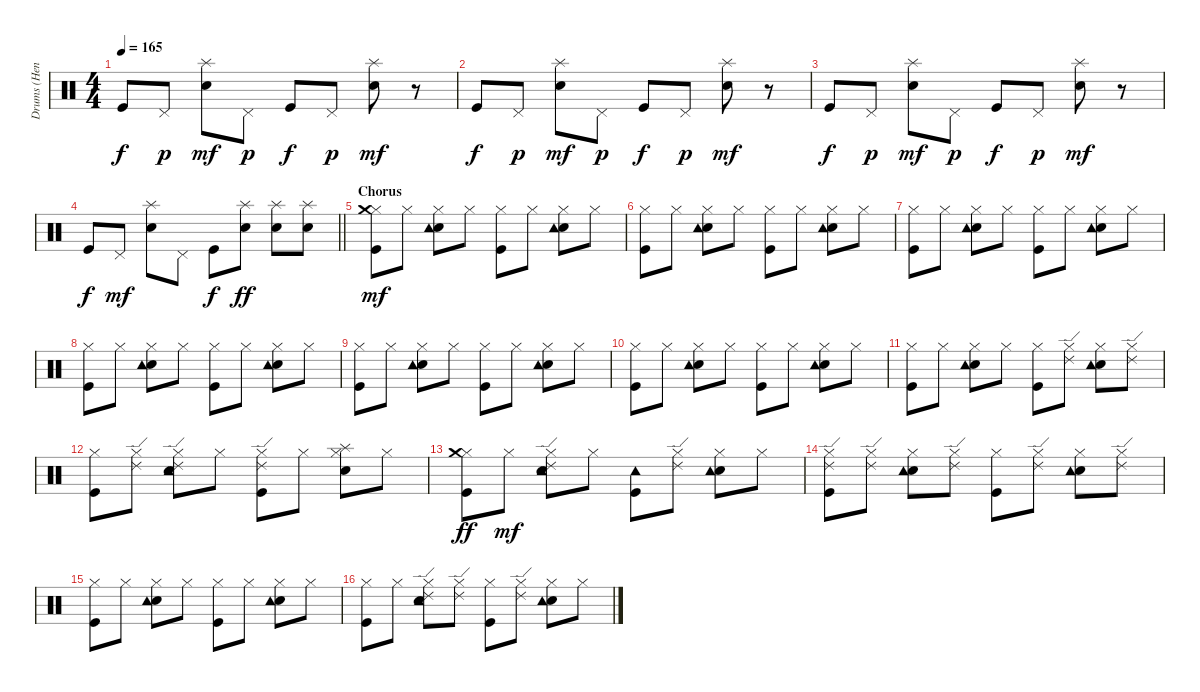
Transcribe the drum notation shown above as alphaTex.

\track ("Drums (Henry)" "Drums (Hen") {instrument percussion}
\staff {score}
\articulation defaults
\ts (4 4)
\tempo 165
\clef neutral
\ks c "Kick (hit)".8{dy f} "Pedal Hi-Hat (hit)".8{dy p}
("Snare (hit) 2" "Splash (hit)").8{dy mf} "Pedal Hi-Hat (hit)".8{dy p} "Kick (hit)".8{dy f} "Pedal Hi-Hat (hit)".8{dy p} ("Snare (hit) 2" "Splash (hit)").8{dy mf} r.8 |
"Kick (hit)".8{dy f} "Pedal Hi-Hat (hit)".8{dy p} ("Snare (hit) 2" "Splash (hit)").8{dy mf} "Pedal Hi-Hat (hit)".8{dy p} "Kick (hit)".8{dy f} "Pedal Hi-Hat (hit)".8{dy p} ("Snare (hit) 2" "Splash (hit)").8{dy mf} r.8 |
"Kick (hit)".8{dy f} "Pedal Hi-Hat (hit)".8{dy p} ("Snare (hit) 2" "Splash (hit)").8{dy mf} "Pedal Hi-Hat (hit)".8{dy p} "Kick (hit)".8{dy f} "Pedal Hi-Hat (hit)".8{dy p} ("Snare (hit) 2" "Splash (hit)").8{dy mf} r.8 |
\barLineRight lightlight "Kick (hit)".8{dy f} "Pedal Hi-Hat (hit)".8{dy mf}
("Snare (hit) 2" "Splash (hit)").8 "Pedal Hi-Hat (hit)".8 "Kick (hit)".8{dy f} ("Snare (hit) 2" "Splash (hit)").8{dy ff} ("Snare (hit) 2" "Splash (hit)").8 ("Snare (hit) 2" "Splash (hit)").8 |
\section ("" "Chorus")
("Kick (hit)" "Hi-Hat (closed)" "Crash medium (hit)").8{dy mf} "Hi-Hat (closed)".8 ("Snare (hit) 2" "Tambourine (hit)" "Hi-Hat (closed)").8 "Hi-Hat (closed)".8 ("Kick (hit)" "Hi-Hat (closed)").8 "Hi-Hat (closed)".8 ("Snare (hit) 2" "Tambourine (hit)" "Hi-Hat (closed)").8 "Hi-Hat (closed)".8 |
("Kick (hit)" "Hi-Hat (closed)").8 "Hi-Hat (closed)".8 ("Snare (hit) 2" "Tambourine (hit)" "Hi-Hat (closed)").8 "Hi-Hat (closed)".8 ("Kick (hit)" "Hi-Hat (closed)").8 "Hi-Hat (closed)".8 ("Snare (hit) 2" "Tambourine (hit)" "Hi-Hat (closed)").8 "Hi-Hat (closed)".8 |
("Kick (hit)" "Hi-Hat (closed)").8 "Hi-Hat (closed)".8 ("Snare (hit) 2" "Tambourine (hit)" "Hi-Hat (closed)").8 "Hi-Hat (closed)".8 ("Kick (hit)" "Hi-Hat (closed)").8 "Hi-Hat (closed)".8 ("Snare (hit) 2" "Tambourine (hit)" "Hi-Hat (closed)").8 "Hi-Hat (closed)".8 |
("Kick (hit)" "Hi-Hat (closed)").8 "Hi-Hat (closed)".8 ("Snare (hit) 2" "Tambourine (hit)" "Hi-Hat (closed)").8 "Hi-Hat (closed)".8 ("Kick (hit)" "Hi-Hat (closed)").8 "Hi-Hat (closed)".8 ("Snare (hit) 2" "Tambourine (hit)" "Hi-Hat (closed)").8 "Hi-Hat (closed)".8 |
("Kick (hit)" "Hi-Hat (closed)").8 "Hi-Hat (closed)".8 ("Snare (hit) 2" "Tambourine (hit)" "Hi-Hat (closed)").8 "Hi-Hat (closed)".8 ("Kick (hit)" "Hi-Hat (closed)").8 "Hi-Hat (closed)".8 ("Snare (hit) 2" "Tambourine (hit)" "Hi-Hat (closed)").8 "Hi-Hat (closed)".8 |
("Kick (hit)" "Hi-Hat (closed)").8 "Hi-Hat (closed)".8 ("Snare (hit) 2" "Tambourine (hit)" "Hi-Hat (closed)").8 "Hi-Hat (closed)".8 ("Kick (hit)" "Hi-Hat (closed)").8 "Hi-Hat (closed)".8 ("Snare (hit) 2" "Tambourine (hit)" "Hi-Hat (closed)").8 "Hi-Hat (closed)".8 |
("Kick (hit)" "Hi-Hat (closed)").8 "Hi-Hat (closed)".8 ("Snare (hit) 2" "Tambourine (hit)" "Hi-Hat (closed)").8 "Hi-Hat (closed)".8 ("Kick (hit)" "Hi-Hat (closed)").8 ("Hi-Hat (closed)" "Ride (edge) 2").8 ("Snare (hit) 2" "Tambourine (hit)" "Hi-Hat (closed)").8 ("Hi-Hat (closed)" "Ride (edge) 2").8 |
("Kick (hit)" "Hi-Hat (closed)").8 ("Hi-Hat (closed)" "Ride (edge) 2").8 ("Snare (hit) 2" "Tambourine (hit)" "Hi-Hat (closed)" "Ride (edge) 2").8 "Hi-Hat (closed)".8 ("Kick (hit)" "Hi-Hat (closed)" "Ride (edge) 2").8 "Hi-Hat (closed)".8 ("Snare (hit) 2" "Splash (hit)" "Hi-Hat (closed)").8 "Hi-Hat (closed)".8 |
("Kick (hit)" "Hi-Hat (closed)" "Crash medium (hit)").8{dy ff} "Hi-Hat (closed)".8{dy mf} ("Snare (hit) 2" "Tambourine (hit)" "Hi-Hat (closed)" "Ride (edge) 2").8 "Hi-Hat (closed)".8 ("Kick (hit)" "Tambourine (hit)").8 ("Hi-Hat (closed)" "Ride (edge) 2").8 ("Snare (hit) 2" "Tambourine (hit)" "Hi-Hat (closed)").8 "Hi-Hat (closed)".8 |
("Kick (hit)" "Hi-Hat (closed)" "Ride (edge) 2").8 ("Hi-Hat (closed)" "Ride (edge) 2").8 ("Snare (hit) 2" "Tambourine (hit)" "Hi-Hat (closed)").8 ("Hi-Hat (closed)" "Ride (edge) 2").8 ("Kick (hit)" "Hi-Hat (closed)").8 ("Hi-Hat (closed)" "Ride (edge) 2").8 ("Snare (hit) 2" "Tambourine (hit)" "Hi-Hat (closed)").8 ("Hi-Hat (closed)" "Ride (edge) 2").8 |
("Kick (hit)" "Hi-Hat (closed)").8 "Hi-Hat (closed)".8 ("Snare (hit) 2" "Tambourine (hit)" "Hi-Hat (closed)").8 "Hi-Hat (closed)".8 ("Kick (hit)" "Hi-Hat (closed)").8 "Hi-Hat (closed)".8 ("Snare (hit) 2" "Tambourine (hit)" "Hi-Hat (closed)").8 "Hi-Hat (closed)".8 |
("Kick (hit)" "Hi-Hat (closed)").8 "Hi-Hat (closed)".8 ("Snare (hit) 2" "Tambourine (hit)" "Hi-Hat (closed)" "Ride (edge) 2").8 ("Hi-Hat (closed)" "Ride (edge) 2").8 ("Kick (hit)" "Hi-Hat (closed)").8 ("Hi-Hat (closed)" "Ride (edge) 2").8 ("Snare (hit) 2" "Tambourine (hit)" "Hi-Hat (closed)").8 "Hi-Hat (closed)".8
